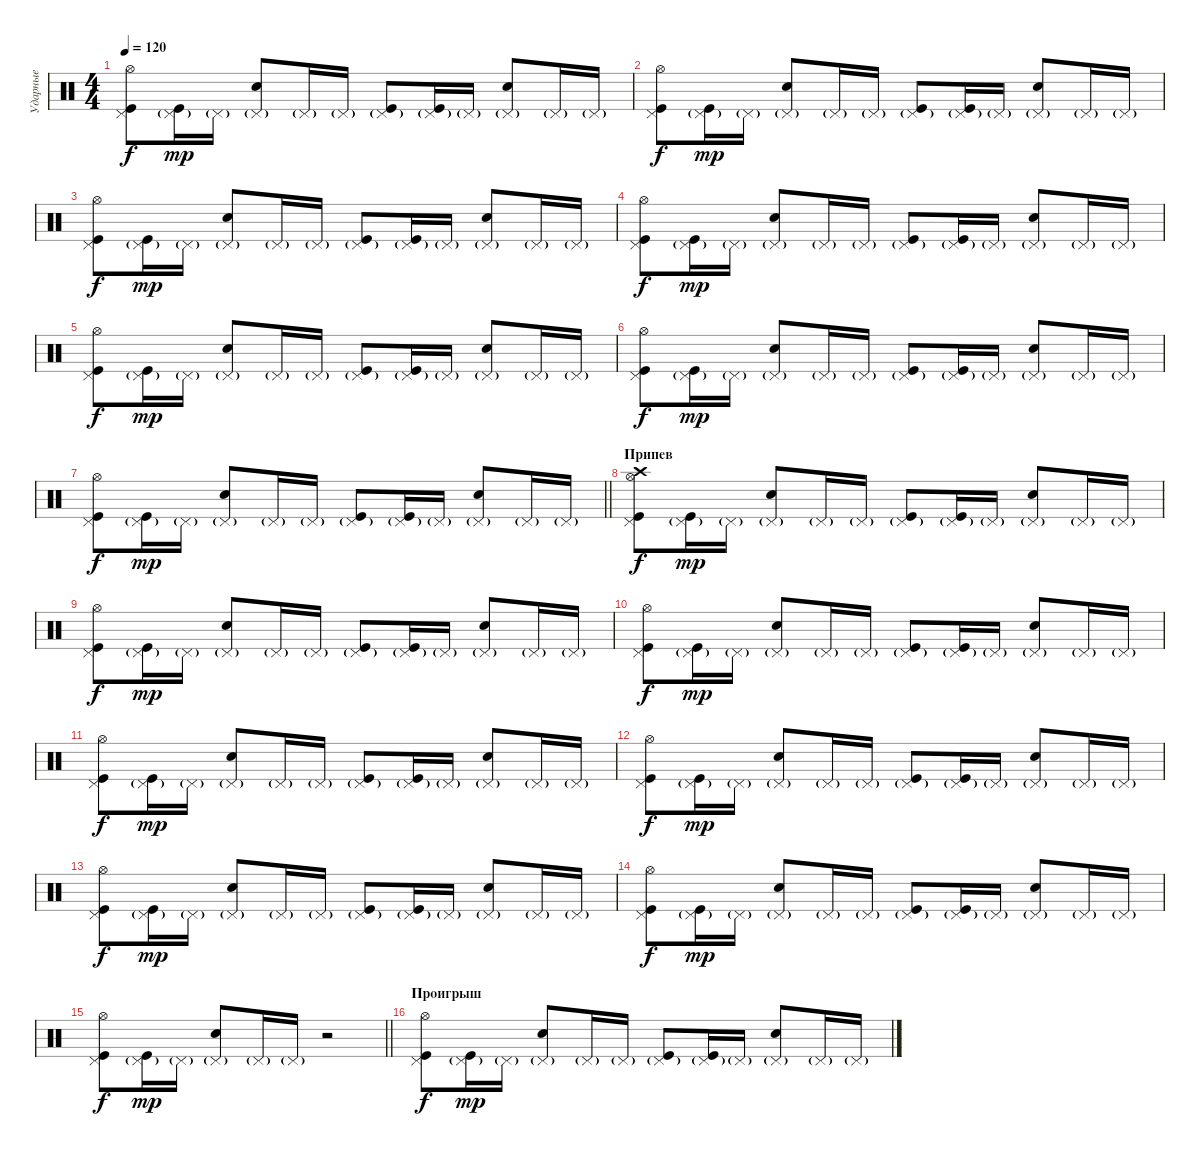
\track ("Ударные" "Ударные") {instrument percussion}
\staff {score}
\articulation defaults
\ts (4 4)
\tempo 120
\clef neutral
\ks c
("Hi-Hat (open)" "Kick (hit)" "Pedal Hi-Hat (hit)").8{dy f} ("Kick (hit)" "Pedal Hi-Hat (hit)"{g}).16{dy mp} "Pedal Hi-Hat (hit)"{g}.16 ("Electric Snare (hit)" "Pedal Hi-Hat (hit)"{g}).8 "Pedal Hi-Hat (hit)"{g}.16 "Pedal Hi-Hat (hit)"{g}.16 ("Kick (hit)" "Pedal Hi-Hat (hit)"{g}).8 ("Kick (hit)" "Pedal Hi-Hat (hit)"{g}).16 "Pedal Hi-Hat (hit)"{g}.16 ("Electric Snare (hit)" "Pedal Hi-Hat (hit)"{g}).8 "Pedal Hi-Hat (hit)"{g}.16 "Pedal Hi-Hat (hit)"{g}.16 |
("Hi-Hat (open)" "Kick (hit)" "Pedal Hi-Hat (hit)").8{dy f} ("Kick (hit)" "Pedal Hi-Hat (hit)"{g}).16{dy mp} "Pedal Hi-Hat (hit)"{g}.16 ("Electric Snare (hit)" "Pedal Hi-Hat (hit)"{g}).8 "Pedal Hi-Hat (hit)"{g}.16 "Pedal Hi-Hat (hit)"{g}.16 ("Kick (hit)" "Pedal Hi-Hat (hit)"{g}).8 ("Kick (hit)" "Pedal Hi-Hat (hit)"{g}).16 "Pedal Hi-Hat (hit)"{g}.16 ("Electric Snare (hit)" "Pedal Hi-Hat (hit)"{g}).8 "Pedal Hi-Hat (hit)"{g}.16 "Pedal Hi-Hat (hit)"{g}.16 |
("Hi-Hat (open)" "Kick (hit)" "Pedal Hi-Hat (hit)").8{dy f} ("Kick (hit)" "Pedal Hi-Hat (hit)"{g}).16{dy mp} "Pedal Hi-Hat (hit)"{g}.16 ("Electric Snare (hit)" "Pedal Hi-Hat (hit)"{g}).8 "Pedal Hi-Hat (hit)"{g}.16 "Pedal Hi-Hat (hit)"{g}.16 ("Kick (hit)" "Pedal Hi-Hat (hit)"{g}).8 ("Kick (hit)" "Pedal Hi-Hat (hit)"{g}).16 "Pedal Hi-Hat (hit)"{g}.16 ("Electric Snare (hit)" "Pedal Hi-Hat (hit)"{g}).8 "Pedal Hi-Hat (hit)"{g}.16 "Pedal Hi-Hat (hit)"{g}.16 |
("Hi-Hat (open)" "Kick (hit)" "Pedal Hi-Hat (hit)").8{dy f} ("Kick (hit)" "Pedal Hi-Hat (hit)"{g}).16{dy mp} "Pedal Hi-Hat (hit)"{g}.16 ("Electric Snare (hit)" "Pedal Hi-Hat (hit)"{g}).8 "Pedal Hi-Hat (hit)"{g}.16 "Pedal Hi-Hat (hit)"{g}.16 ("Kick (hit)" "Pedal Hi-Hat (hit)"{g}).8 ("Kick (hit)" "Pedal Hi-Hat (hit)"{g}).16 "Pedal Hi-Hat (hit)"{g}.16 ("Electric Snare (hit)" "Pedal Hi-Hat (hit)"{g}).8 "Pedal Hi-Hat (hit)"{g}.16 "Pedal Hi-Hat (hit)"{g}.16 |
("Hi-Hat (open)" "Kick (hit)" "Pedal Hi-Hat (hit)").8{dy f} ("Kick (hit)" "Pedal Hi-Hat (hit)"{g}).16{dy mp} "Pedal Hi-Hat (hit)"{g}.16 ("Electric Snare (hit)" "Pedal Hi-Hat (hit)"{g}).8 "Pedal Hi-Hat (hit)"{g}.16 "Pedal Hi-Hat (hit)"{g}.16 ("Kick (hit)" "Pedal Hi-Hat (hit)"{g}).8 ("Kick (hit)" "Pedal Hi-Hat (hit)"{g}).16 "Pedal Hi-Hat (hit)"{g}.16 ("Electric Snare (hit)" "Pedal Hi-Hat (hit)"{g}).8 "Pedal Hi-Hat (hit)"{g}.16 "Pedal Hi-Hat (hit)"{g}.16 |
("Hi-Hat (open)" "Kick (hit)" "Pedal Hi-Hat (hit)").8{dy f} ("Kick (hit)" "Pedal Hi-Hat (hit)"{g}).16{dy mp} "Pedal Hi-Hat (hit)"{g}.16 ("Electric Snare (hit)" "Pedal Hi-Hat (hit)"{g}).8 "Pedal Hi-Hat (hit)"{g}.16 "Pedal Hi-Hat (hit)"{g}.16 ("Kick (hit)" "Pedal Hi-Hat (hit)"{g}).8 ("Kick (hit)" "Pedal Hi-Hat (hit)"{g}).16 "Pedal Hi-Hat (hit)"{g}.16 ("Electric Snare (hit)" "Pedal Hi-Hat (hit)"{g}).8 "Pedal Hi-Hat (hit)"{g}.16 "Pedal Hi-Hat (hit)"{g}.16 |
\barLineRight lightlight
("Hi-Hat (open)" "Kick (hit)" "Pedal Hi-Hat (hit)").8{dy f} ("Kick (hit)" "Pedal Hi-Hat (hit)"{g}).16{dy mp} "Pedal Hi-Hat (hit)"{g}.16 ("Electric Snare (hit)" "Pedal Hi-Hat (hit)"{g}).8 "Pedal Hi-Hat (hit)"{g}.16 "Pedal Hi-Hat (hit)"{g}.16 ("Kick (hit)" "Pedal Hi-Hat (hit)"{g}).8 ("Kick (hit)" "Pedal Hi-Hat (hit)"{g}).16 "Pedal Hi-Hat (hit)"{g}.16 ("Electric Snare (hit)" "Pedal Hi-Hat (hit)"{g}).8 "Pedal Hi-Hat (hit)"{g}.16 "Pedal Hi-Hat (hit)"{g}.16 |
\section ("" "Припев")
("Hi-Hat (open)" "Crash high (hit)" "Kick (hit)" "Pedal Hi-Hat (hit)").8{dy f} ("Kick (hit)" "Pedal Hi-Hat (hit)"{g}).16{dy mp} "Pedal Hi-Hat (hit)"{g}.16 ("Electric Snare (hit)" "Pedal Hi-Hat (hit)"{g}).8 "Pedal Hi-Hat (hit)"{g}.16 "Pedal Hi-Hat (hit)"{g}.16 ("Kick (hit)" "Pedal Hi-Hat (hit)"{g}).8 ("Kick (hit)" "Pedal Hi-Hat (hit)"{g}).16 "Pedal Hi-Hat (hit)"{g}.16 ("Electric Snare (hit)" "Pedal Hi-Hat (hit)"{g}).8 "Pedal Hi-Hat (hit)"{g}.16 "Pedal Hi-Hat (hit)"{g}.16 |
("Hi-Hat (open)" "Kick (hit)" "Pedal Hi-Hat (hit)").8{dy f} ("Kick (hit)" "Pedal Hi-Hat (hit)"{g}).16{dy mp} "Pedal Hi-Hat (hit)"{g}.16 ("Electric Snare (hit)" "Pedal Hi-Hat (hit)"{g}).8 "Pedal Hi-Hat (hit)"{g}.16 "Pedal Hi-Hat (hit)"{g}.16 ("Kick (hit)" "Pedal Hi-Hat (hit)"{g}).8 ("Kick (hit)" "Pedal Hi-Hat (hit)"{g}).16 "Pedal Hi-Hat (hit)"{g}.16 ("Electric Snare (hit)" "Pedal Hi-Hat (hit)"{g}).8 "Pedal Hi-Hat (hit)"{g}.16 "Pedal Hi-Hat (hit)"{g}.16 |
("Hi-Hat (open)" "Kick (hit)" "Pedal Hi-Hat (hit)").8{dy f} ("Kick (hit)" "Pedal Hi-Hat (hit)"{g}).16{dy mp} "Pedal Hi-Hat (hit)"{g}.16 ("Electric Snare (hit)" "Pedal Hi-Hat (hit)"{g}).8 "Pedal Hi-Hat (hit)"{g}.16 "Pedal Hi-Hat (hit)"{g}.16 ("Kick (hit)" "Pedal Hi-Hat (hit)"{g}).8 ("Kick (hit)" "Pedal Hi-Hat (hit)"{g}).16 "Pedal Hi-Hat (hit)"{g}.16 ("Electric Snare (hit)" "Pedal Hi-Hat (hit)"{g}).8 "Pedal Hi-Hat (hit)"{g}.16 "Pedal Hi-Hat (hit)"{g}.16 |
("Hi-Hat (open)" "Kick (hit)" "Pedal Hi-Hat (hit)").8{dy f} ("Kick (hit)" "Pedal Hi-Hat (hit)"{g}).16{dy mp} "Pedal Hi-Hat (hit)"{g}.16 ("Electric Snare (hit)" "Pedal Hi-Hat (hit)"{g}).8 "Pedal Hi-Hat (hit)"{g}.16 "Pedal Hi-Hat (hit)"{g}.16 ("Kick (hit)" "Pedal Hi-Hat (hit)"{g}).8 ("Kick (hit)" "Pedal Hi-Hat (hit)"{g}).16 "Pedal Hi-Hat (hit)"{g}.16 ("Electric Snare (hit)" "Pedal Hi-Hat (hit)"{g}).8 "Pedal Hi-Hat (hit)"{g}.16 "Pedal Hi-Hat (hit)"{g}.16 |
("Hi-Hat (open)" "Kick (hit)" "Pedal Hi-Hat (hit)").8{dy f} ("Kick (hit)" "Pedal Hi-Hat (hit)"{g}).16{dy mp} "Pedal Hi-Hat (hit)"{g}.16 ("Electric Snare (hit)" "Pedal Hi-Hat (hit)"{g}).8 "Pedal Hi-Hat (hit)"{g}.16 "Pedal Hi-Hat (hit)"{g}.16 ("Kick (hit)" "Pedal Hi-Hat (hit)"{g}).8 ("Kick (hit)" "Pedal Hi-Hat (hit)"{g}).16 "Pedal Hi-Hat (hit)"{g}.16 ("Electric Snare (hit)" "Pedal Hi-Hat (hit)"{g}).8 "Pedal Hi-Hat (hit)"{g}.16 "Pedal Hi-Hat (hit)"{g}.16 |
("Hi-Hat (open)" "Kick (hit)" "Pedal Hi-Hat (hit)").8{dy f} ("Kick (hit)" "Pedal Hi-Hat (hit)"{g}).16{dy mp} "Pedal Hi-Hat (hit)"{g}.16 ("Electric Snare (hit)" "Pedal Hi-Hat (hit)"{g}).8 "Pedal Hi-Hat (hit)"{g}.16 "Pedal Hi-Hat (hit)"{g}.16 ("Kick (hit)" "Pedal Hi-Hat (hit)"{g}).8 ("Kick (hit)" "Pedal Hi-Hat (hit)"{g}).16 "Pedal Hi-Hat (hit)"{g}.16 ("Electric Snare (hit)" "Pedal Hi-Hat (hit)"{g}).8 "Pedal Hi-Hat (hit)"{g}.16 "Pedal Hi-Hat (hit)"{g}.16 |
("Hi-Hat (open)" "Kick (hit)" "Pedal Hi-Hat (hit)").8{dy f} ("Kick (hit)" "Pedal Hi-Hat (hit)"{g}).16{dy mp} "Pedal Hi-Hat (hit)"{g}.16 ("Electric Snare (hit)" "Pedal Hi-Hat (hit)"{g}).8 "Pedal Hi-Hat (hit)"{g}.16 "Pedal Hi-Hat (hit)"{g}.16 ("Kick (hit)" "Pedal Hi-Hat (hit)"{g}).8 ("Kick (hit)" "Pedal Hi-Hat (hit)"{g}).16 "Pedal Hi-Hat (hit)"{g}.16 ("Electric Snare (hit)" "Pedal Hi-Hat (hit)"{g}).8 "Pedal Hi-Hat (hit)"{g}.16 "Pedal Hi-Hat (hit)"{g}.16 |
\barLineRight lightlight
("Hi-Hat (open)" "Kick (hit)" "Pedal Hi-Hat (hit)").8{dy f} ("Kick (hit)" "Pedal Hi-Hat (hit)"{g}).16{dy mp} "Pedal Hi-Hat (hit)"{g}.16 ("Electric Snare (hit)" "Pedal Hi-Hat (hit)"{g}).8 "Pedal Hi-Hat (hit)"{g}.16 "Pedal Hi-Hat (hit)"{g}.16 r.2 |
\section ("" "Проигрыш")
("Hi-Hat (open)" "Kick (hit)" "Pedal Hi-Hat (hit)").8{dy f} ("Kick (hit)" "Pedal Hi-Hat (hit)"{g}).16{dy mp} "Pedal Hi-Hat (hit)"{g}.16 ("Electric Snare (hit)" "Pedal Hi-Hat (hit)"{g}).8 "Pedal Hi-Hat (hit)"{g}.16 "Pedal Hi-Hat (hit)"{g}.16 ("Kick (hit)" "Pedal Hi-Hat (hit)"{g}).8 ("Kick (hit)" "Pedal Hi-Hat (hit)"{g}).16 "Pedal Hi-Hat (hit)"{g}.16 ("Electric Snare (hit)" "Pedal Hi-Hat (hit)"{g}).8 "Pedal Hi-Hat (hit)"{g}.16 "Pedal Hi-Hat (hit)"{g}.16
